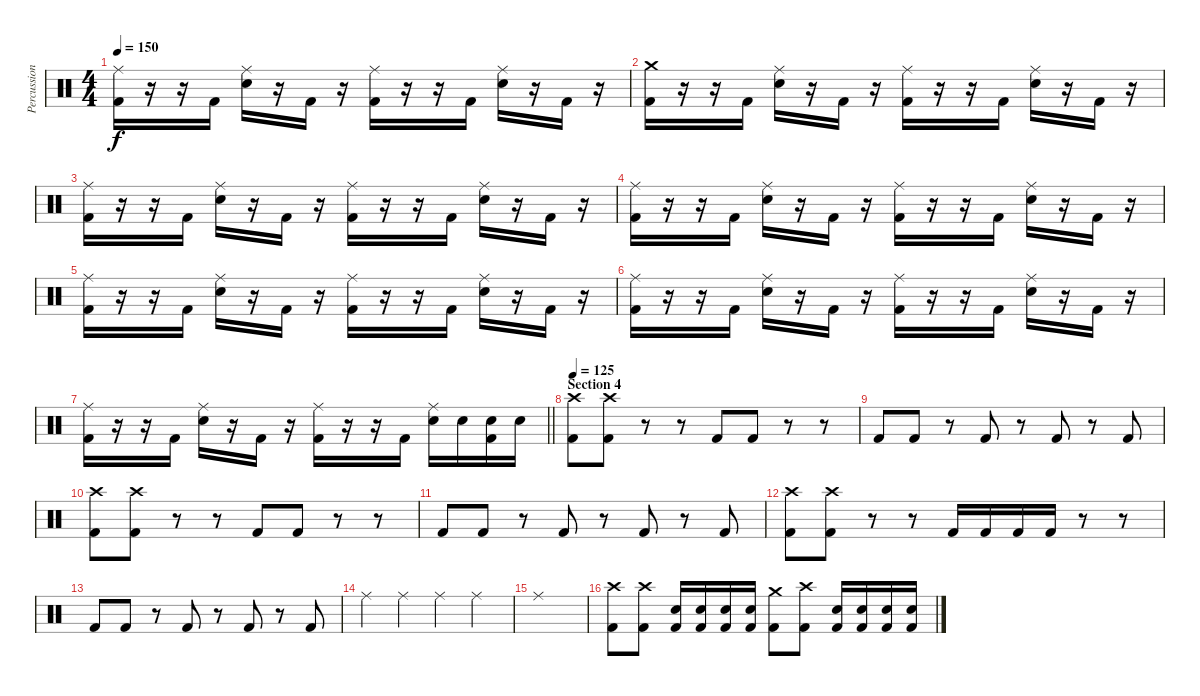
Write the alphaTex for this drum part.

\track ("Percussion" "Percussion") {instrument percussion}
\staff {score}
\articulation defaults
\ts (4 4)
\tempo 150
\clef neutral
\ks c
("Ride (middle)" "Kick (hit) 2").16{dy f} r.16 r.16 "Kick (hit) 2".16 ("Ride (middle)" "Snare (hit) 2").16 r.16 "Kick (hit) 2".16 r.16 ("Ride (middle)" "Kick (hit) 2").16 r.16 r.16 "Kick (hit) 2".16 ("Ride (middle)" "Snare (hit) 2").16 r.16 "Kick (hit) 2".16 r.16 |
("Crash medium (hit)" "Kick (hit) 2").16 r.16 r.16 "Kick (hit) 2".16 ("Ride (middle)" "Snare (hit) 2").16 r.16 "Kick (hit) 2".16 r.16 ("Ride (middle)" "Kick (hit) 2").16 r.16 r.16 "Kick (hit) 2".16 ("Ride (middle)" "Snare (hit) 2").16 r.16 "Kick (hit) 2".16 r.16 |
("Ride (middle)" "Kick (hit) 2").16 r.16 r.16 "Kick (hit) 2".16 ("Ride (middle)" "Snare (hit) 2").16 r.16 "Kick (hit) 2".16 r.16 ("Ride (middle)" "Kick (hit) 2").16 r.16 r.16 "Kick (hit) 2".16 ("Ride (middle)" "Snare (hit) 2").16 r.16 "Kick (hit) 2".16 r.16 |
("Ride (middle)" "Kick (hit) 2").16 r.16 r.16 "Kick (hit) 2".16 ("Ride (middle)" "Snare (hit) 2").16 r.16 "Kick (hit) 2".16 r.16 ("Ride (middle)" "Kick (hit) 2").16 r.16 r.16 "Kick (hit) 2".16 ("Ride (middle)" "Snare (hit) 2").16 r.16 "Kick (hit) 2".16 r.16 |
("Ride (middle)" "Kick (hit) 2").16 r.16 r.16 "Kick (hit) 2".16 ("Ride (middle)" "Snare (hit) 2").16 r.16 "Kick (hit) 2".16 r.16 ("Ride (middle)" "Kick (hit) 2").16 r.16 r.16 "Kick (hit) 2".16 ("Ride (middle)" "Snare (hit) 2").16 r.16 "Kick (hit) 2".16 r.16 |
("Ride (middle)" "Kick (hit) 2").16 r.16 r.16 "Kick (hit) 2".16 ("Ride (middle)" "Snare (hit) 2").16 r.16 "Kick (hit) 2".16 r.16 ("Ride (middle)" "Kick (hit) 2").16 r.16 r.16 "Kick (hit) 2".16 ("Ride (middle)" "Snare (hit) 2").16 r.16 "Kick (hit) 2".16 r.16 |
\barLineRight lightlight
("Ride (middle)" "Kick (hit) 2").16 r.16 r.16 "Kick (hit) 2".16 ("Ride (middle)" "Snare (hit) 2").16 r.16 "Kick (hit) 2".16 r.16 ("Ride (middle)" "Kick (hit) 2").16 r.16 r.16 "Kick (hit) 2".16 ("Ride (middle)" "Snare (hit) 2").16 "Snare (hit) 2".16 ("Snare (hit) 2" "Kick (hit) 2").16 "Snare (hit) 2".16 |
\section ("" "Section 4")
\tempo 125
("Crash high (hit)" "Kick (hit) 2").8 ("Crash high (hit)" "Kick (hit) 2").8 r.8 r.8 "Kick (hit) 2".8 "Kick (hit) 2".8 r.8 r.8 |
"Kick (hit) 2".8 "Kick (hit) 2".8 r.8 "Kick (hit) 2".8 r.8 "Kick (hit) 2".8 r.8 "Kick (hit) 2".8 |
("Crash high (hit)" "Kick (hit) 2").8 ("Crash high (hit)" "Kick (hit) 2").8 r.8 r.8 "Kick (hit) 2".8 "Kick (hit) 2".8 r.8 r.8 |
"Kick (hit) 2".8 "Kick (hit) 2".8 r.8 "Kick (hit) 2".8 r.8 "Kick (hit) 2".8 r.8 "Kick (hit) 2".8 |
("Crash high (hit)" "Kick (hit) 2").8 ("Crash high (hit)" "Kick (hit) 2").8 r.8 r.8 "Kick (hit) 2".16 "Kick (hit) 2".16 "Kick (hit) 2".16 "Kick (hit) 2".16 r.8 r.8 |
"Kick (hit) 2".8 "Kick (hit) 2".8 r.8 "Kick (hit) 2".8 r.8 "Kick (hit) 2".8 r.8 "Kick (hit) 2".8 |
"Ride (middle)".4 "Ride (middle)".4 "Ride (middle)".4 "Ride (middle)".4 |
"Ride (middle)".1 |
("Crash high (hit)" "Kick (hit) 2").8 ("Crash high (hit)" "Kick (hit) 2").8 ("Snare (hit) 2" "Kick (hit) 2").16 ("Snare (hit) 2" "Kick (hit) 2").16 ("Snare (hit) 2" "Kick (hit) 2").16 ("Snare (hit) 2" "Kick (hit) 2").16 ("Crash medium (hit)" "Kick (hit) 2").8 ("Crash high (hit)" "Kick (hit) 2").8 ("Snare (hit) 2" "Kick (hit) 2").16 ("Snare (hit) 2" "Kick (hit) 2").16 ("Snare (hit) 2" "Kick (hit) 2").16 ("Snare (hit) 2" "Kick (hit) 2").16
